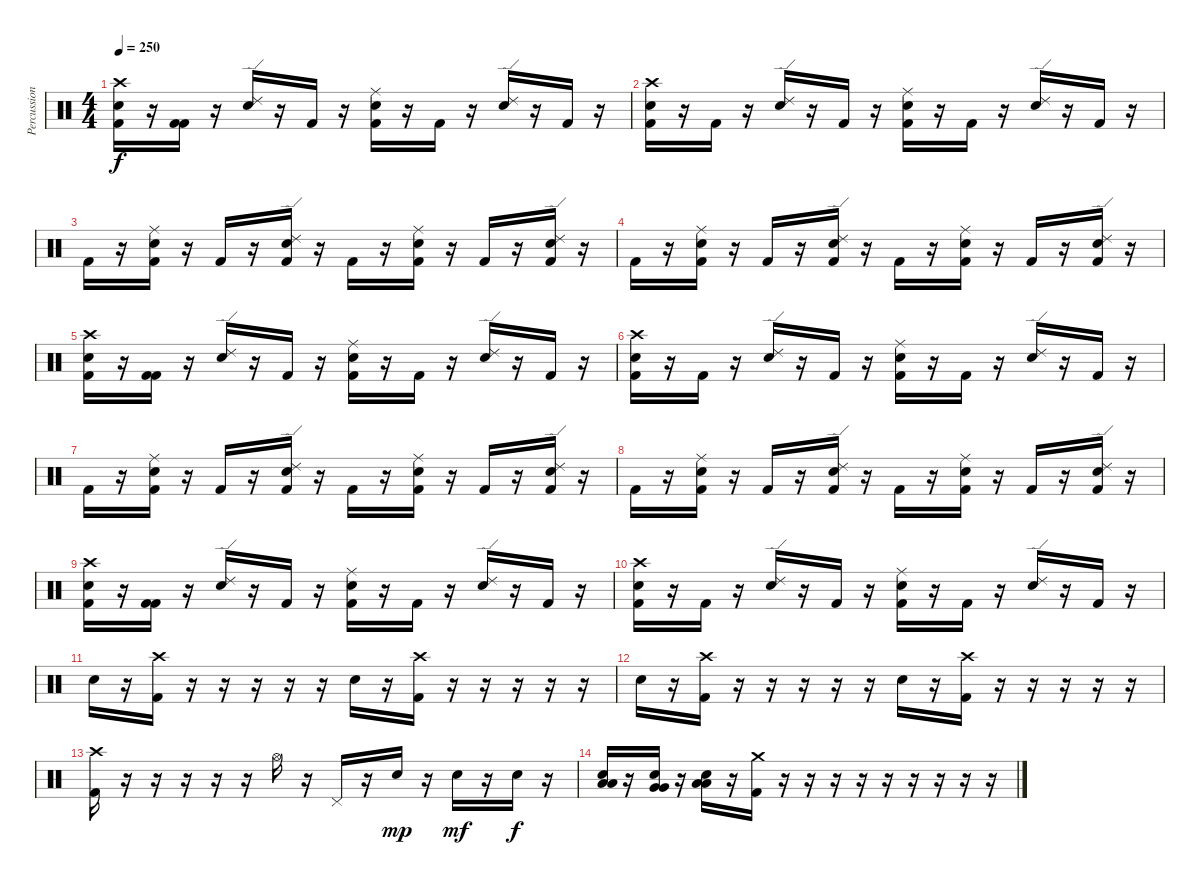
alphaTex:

\track ("Percussion" "Percussion") {instrument percussion}
\staff {score}
\articulation defaults
\ts (4 4)
\tempo 250
\clef neutral
\ks c
("Crash high (hit)" "Kick (hit) 2" "Snare (hit) 2").16{dy f} r.16 ("Kick (hit) 2" "Kick (hit) 2").16 r.16 ("Ride (edge) 2" "Electric Snare (hit)").16 r.16 "Kick (hit) 2".16 r.16 ("Ride (middle)" "Kick (hit) 2" "Snare (hit) 2").16 r.16 "Kick (hit) 2".16 r.16 ("Ride (edge) 2" "Electric Snare (hit)").16 r.16 "Kick (hit) 2".16 r.16 |
("Crash high (hit)" "Kick (hit) 2" "Snare (hit) 2").16 r.16 "Kick (hit) 2".16 r.16 ("Ride (edge) 2" "Electric Snare (hit)").16 r.16 "Kick (hit) 2".16 r.16 ("Ride (middle)" "Kick (hit) 2" "Snare (hit) 2").16 r.16 "Kick (hit) 2".16 r.16 ("Ride (edge) 2" "Electric Snare (hit)").16 r.16 "Kick (hit) 2".16 r.16 |
"Kick (hit) 2".16 r.16 ("Ride (middle)" "Snare (hit) 2" "Kick (hit) 2").16 r.16 "Kick (hit) 2".16 r.16 ("Ride (edge) 2" "Snare (hit) 2" "Kick (hit) 2").16 r.16 "Kick (hit) 2".16 r.16 ("Ride (middle)" "Snare (hit) 2" "Kick (hit) 2").16 r.16 "Kick (hit) 2".16 r.16 ("Ride (edge) 2" "Snare (hit) 2" "Kick (hit) 2").16 r.16 |
"Kick (hit) 2".16 r.16 ("Ride (middle)" "Snare (hit) 2" "Kick (hit) 2").16 r.16 "Kick (hit) 2".16 r.16 ("Ride (edge) 2" "Snare (hit) 2" "Kick (hit) 2").16 r.16 "Kick (hit) 2".16 r.16 ("Ride (middle)" "Snare (hit) 2" "Kick (hit) 2").16 r.16 "Kick (hit) 2".16 r.16 ("Ride (edge) 2" "Snare (hit) 2" "Kick (hit) 2").16 r.16 |
("Crash high (hit)" "Kick (hit) 2" "Snare (hit) 2").16 r.16 ("Kick (hit) 2" "Kick (hit) 2").16 r.16 ("Ride (edge) 2" "Electric Snare (hit)").16 r.16 "Kick (hit) 2".16 r.16 ("Ride (middle)" "Kick (hit) 2" "Snare (hit) 2").16 r.16 "Kick (hit) 2".16 r.16 ("Ride (edge) 2" "Electric Snare (hit)").16 r.16 "Kick (hit) 2".16 r.16 |
("Crash high (hit)" "Kick (hit) 2" "Snare (hit) 2").16 r.16 "Kick (hit) 2".16 r.16 ("Ride (edge) 2" "Electric Snare (hit)").16 r.16 "Kick (hit) 2".16 r.16 ("Ride (middle)" "Kick (hit) 2" "Snare (hit) 2").16 r.16 "Kick (hit) 2".16 r.16 ("Ride (edge) 2" "Electric Snare (hit)").16 r.16 "Kick (hit) 2".16 r.16 |
"Kick (hit) 2".16 r.16 ("Ride (middle)" "Snare (hit) 2" "Kick (hit) 2").16 r.16 "Kick (hit) 2".16 r.16 ("Ride (edge) 2" "Snare (hit) 2" "Kick (hit) 2").16 r.16 "Kick (hit) 2".16 r.16 ("Ride (middle)" "Snare (hit) 2" "Kick (hit) 2").16 r.16 "Kick (hit) 2".16 r.16 ("Ride (edge) 2" "Snare (hit) 2" "Kick (hit) 2").16 r.16 |
"Kick (hit) 2".16 r.16 ("Ride (middle)" "Snare (hit) 2" "Kick (hit) 2").16 r.16 "Kick (hit) 2".16 r.16 ("Ride (edge) 2" "Snare (hit) 2" "Kick (hit) 2").16 r.16 "Kick (hit) 2".16 r.16 ("Ride (middle)" "Snare (hit) 2" "Kick (hit) 2").16 r.16 "Kick (hit) 2".16 r.16 ("Ride (edge) 2" "Snare (hit) 2" "Kick (hit) 2").16 r.16 |
("Crash high (hit)" "Kick (hit) 2" "Snare (hit) 2").16 r.16 ("Kick (hit) 2" "Kick (hit) 2").16 r.16 ("Ride (edge) 2" "Electric Snare (hit)").16 r.16 "Kick (hit) 2".16 r.16 ("Ride (middle)" "Kick (hit) 2" "Snare (hit) 2").16 r.16 "Kick (hit) 2".16 r.16 ("Ride (edge) 2" "Electric Snare (hit)").16 r.16 "Kick (hit) 2".16 r.16 |
("Crash high (hit)" "Kick (hit) 2" "Snare (hit) 2").16 r.16 "Kick (hit) 2".16 r.16 ("Ride (edge) 2" "Electric Snare (hit)").16 r.16 "Kick (hit) 2".16 r.16 ("Ride (middle)" "Kick (hit) 2" "Snare (hit) 2").16 r.16 "Kick (hit) 2".16 r.16 ("Ride (edge) 2" "Electric Snare (hit)").16 r.16 "Kick (hit) 2".16 r.16 |
"Snare (hit) 2".16 r.16 ("Crash high (hit)" "Kick (hit) 2").16 r.16 r.16 r.16 r.16 r.16 "Snare (hit) 2".16 r.16 ("Crash high (hit)" "Kick (hit) 2").16 r.16 r.16 r.16 r.16 r.16 |
"Snare (hit) 2".16 r.16 ("Crash high (hit)" "Kick (hit) 2").16 r.16 r.16 r.16 r.16 r.16 "Snare (hit) 2".16 r.16 ("Crash high (hit)" "Kick (hit) 2").16 r.16 r.16 r.16 r.16 r.16 |
("Crash high (hit)" "Kick (hit) 2").16 r.16 r.16 r.16 r.16 r.16 "Hi-Hat (open)".16 r.16 "Pedal Hi-Hat (hit)".16 r.16 "Snare (hit) 2".16{dy mp} r.16 "Snare (hit) 2".16{dy mf} r.16 "Snare (hit) 2".16{dy f} r.16 |
("Low Tom (hit)" "Low Tom (hit)" "Snare (hit) 2").16 r.16 ("Very Low Tom (hit)" "Very Low Tom (hit)" "Snare (hit) 2").16 r.16 ("Low Floor Tom (hit)" "Low Floor Tom (hit)" "Snare (hit) 2").16 r.16 ("Crash medium (hit)" "Kick (hit) 2").16 r.16 r.16 r.16 r.16 r.16 r.16 r.16 r.16 r.16
